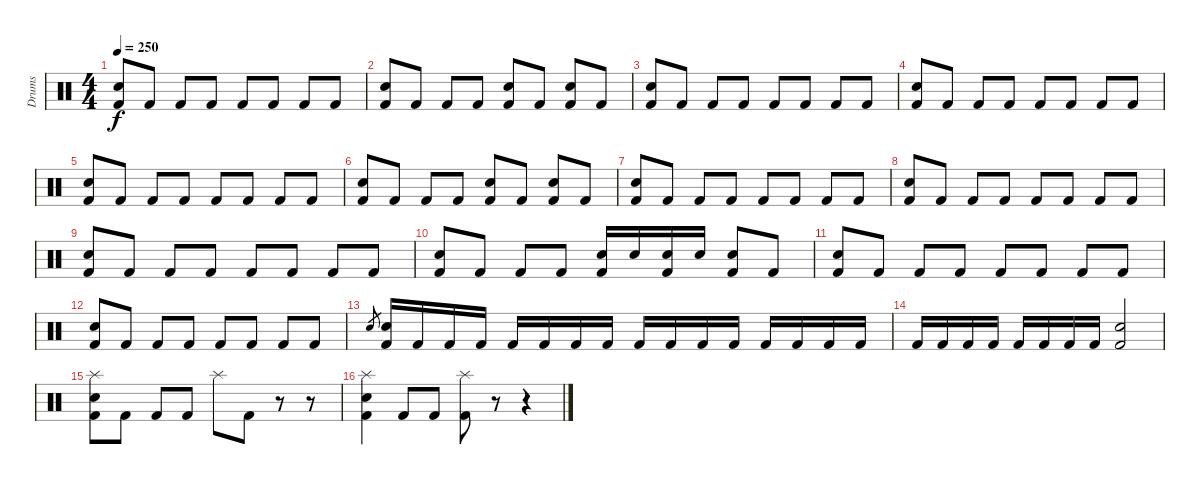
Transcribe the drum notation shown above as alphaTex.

\track ("Drums" "Drums") {instrument percussion}
\staff {score}
\articulation defaults
\ts (4 4)
\tempo 250
\clef neutral
\ks c
("Kick (hit) 2" "Electric Snare (hit)").8{dy f} "Kick (hit) 2".8 "Kick (hit) 2".8 "Kick (hit) 2".8 "Kick (hit) 2".8 "Kick (hit) 2".8 "Kick (hit) 2".8 "Kick (hit) 2".8 |
("Kick (hit) 2" "Electric Snare (hit)").8 "Kick (hit) 2".8 "Kick (hit) 2".8 "Kick (hit) 2".8 ("Kick (hit) 2" "Electric Snare (hit)").8 "Kick (hit) 2".8 ("Kick (hit) 2" "Electric Snare (hit)").8 "Kick (hit) 2".8 |
("Kick (hit) 2" "Electric Snare (hit)").8 "Kick (hit) 2".8 "Kick (hit) 2".8 "Kick (hit) 2".8 "Kick (hit) 2".8 "Kick (hit) 2".8 "Kick (hit) 2".8 "Kick (hit) 2".8 |
("Kick (hit) 2" "Electric Snare (hit)").8 "Kick (hit) 2".8 "Kick (hit) 2".8 "Kick (hit) 2".8 "Kick (hit) 2".8 "Kick (hit) 2".8 "Kick (hit) 2".8 "Kick (hit) 2".8 |
("Kick (hit) 2" "Electric Snare (hit)").8 "Kick (hit) 2".8 "Kick (hit) 2".8 "Kick (hit) 2".8 "Kick (hit) 2".8 "Kick (hit) 2".8 "Kick (hit) 2".8 "Kick (hit) 2".8 |
("Kick (hit) 2" "Electric Snare (hit)").8 "Kick (hit) 2".8 "Kick (hit) 2".8 "Kick (hit) 2".8 ("Kick (hit) 2" "Electric Snare (hit)").8 "Kick (hit) 2".8 ("Kick (hit) 2" "Electric Snare (hit)").8 "Kick (hit) 2".8 |
("Kick (hit) 2" "Electric Snare (hit)").8 "Kick (hit) 2".8 "Kick (hit) 2".8 "Kick (hit) 2".8 "Kick (hit) 2".8 "Kick (hit) 2".8 "Kick (hit) 2".8 "Kick (hit) 2".8 |
("Kick (hit) 2" "Electric Snare (hit)").8 "Kick (hit) 2".8 "Kick (hit) 2".8 "Kick (hit) 2".8 "Kick (hit) 2".8 "Kick (hit) 2".8 "Kick (hit) 2".8 "Kick (hit) 2".8 |
("Kick (hit) 2" "Electric Snare (hit)").8 "Kick (hit) 2".8 "Kick (hit) 2".8 "Kick (hit) 2".8 "Kick (hit) 2".8 "Kick (hit) 2".8 "Kick (hit) 2".8 "Kick (hit) 2".8 |
("Kick (hit) 2" "Electric Snare (hit)").8 "Kick (hit) 2".8 "Kick (hit) 2".8 "Kick (hit) 2".8 ("Kick (hit) 2" "Electric Snare (hit)").16 "Electric Snare (hit)".16 ("Kick (hit) 2" "Electric Snare (hit)").16 "Electric Snare (hit)".16 ("Kick (hit) 2" "Electric Snare (hit)").8 "Kick (hit) 2".8 |
("Kick (hit) 2" "Electric Snare (hit)").8 "Kick (hit) 2".8 "Kick (hit) 2".8 "Kick (hit) 2".8 "Kick (hit) 2".8 "Kick (hit) 2".8 "Kick (hit) 2".8 "Kick (hit) 2".8 |
("Kick (hit) 2" "Electric Snare (hit)").8 "Kick (hit) 2".8 "Kick (hit) 2".8 "Kick (hit) 2".8 "Kick (hit) 2".8 "Kick (hit) 2".8 "Kick (hit) 2".8 "Kick (hit) 2".8 |
"Electric Snare (hit)".8{gr} ("Kick (hit) 2" "Electric Snare (hit)").16 "Kick (hit) 2".16 "Kick (hit) 2".16 "Kick (hit) 2".16 "Kick (hit) 2".16 "Kick (hit) 2".16 "Kick (hit) 2".16 "Kick (hit) 2".16 "Kick (hit) 2".16 "Kick (hit) 2".16 "Kick (hit) 2".16 "Kick (hit) 2".16 "Kick (hit) 2".16 "Kick (hit) 2".16 "Kick (hit) 2".16 "Kick (hit) 2".16 |
"Kick (hit) 2".16 "Kick (hit) 2".16 "Kick (hit) 2".16 "Kick (hit) 2".16 "Kick (hit) 2".16 "Kick (hit) 2".16 "Kick (hit) 2".16 "Kick (hit) 2".16 ("Kick (hit) 2" "Electric Snare (hit)").2{volume 10} |
("Kick (hit) 2" "Electric Snare (hit)" "Splash (hit)").8 "Kick (hit) 2".8 "Kick (hit) 2".8 "Kick (hit) 2".8 "Splash (hit)".8 "Kick (hit) 2".8 r.8 r.8 |
("Kick (hit) 2" "Electric Snare (hit)" "Splash (hit)").4 "Kick (hit) 2".8 "Kick (hit) 2".8 ("Kick (hit) 2" "Splash (hit)").8 r.8 r.4
